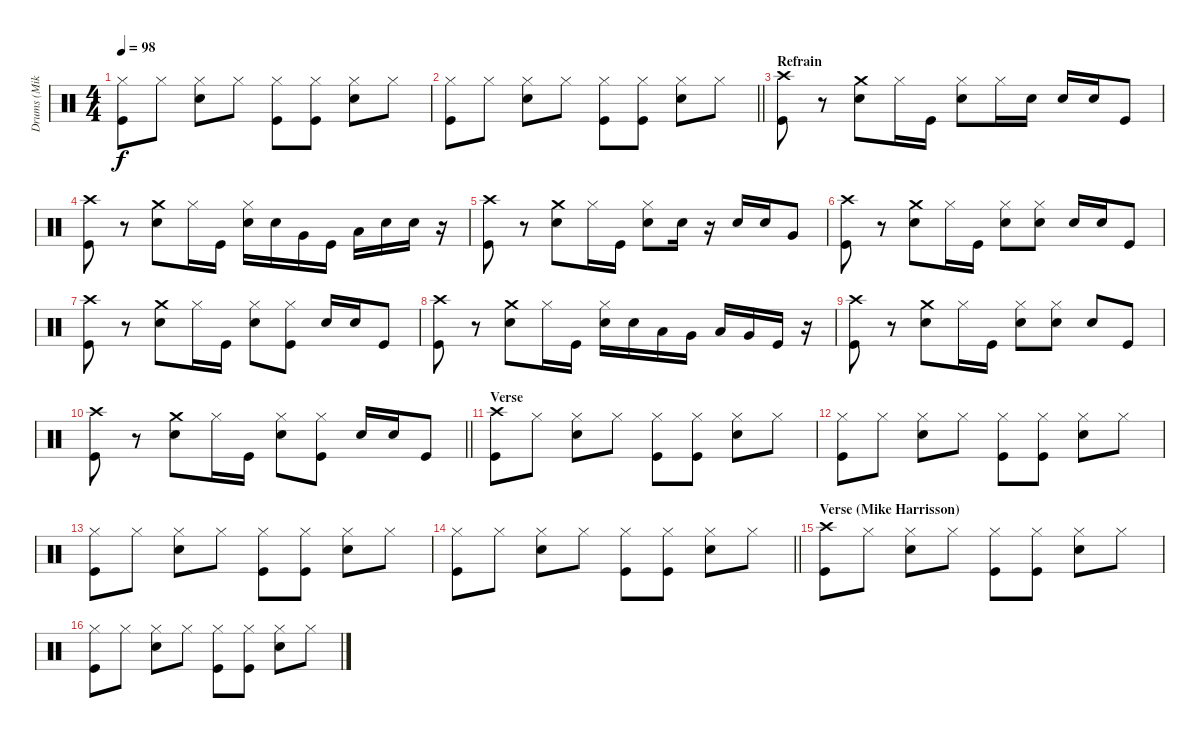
\track ("Drums (Mike Kellie)" "Drums (Mik") {instrument percussion}
\staff {score}
\articulation defaults
\ts (4 4)
\tempo 98
\clef neutral
\ks c
("Hi-Hat (closed)" "Kick (hit)").8{dy f} "Hi-Hat (closed)".8 ("Hi-Hat (closed)" "Electric Snare (hit)").8 "Hi-Hat (closed)".8 ("Hi-Hat (closed)" "Kick (hit)").8 ("Hi-Hat (closed)" "Kick (hit)").8 ("Hi-Hat (closed)" "Electric Snare (hit)").8 "Hi-Hat (closed)".8 |
\barLineRight lightlight
("Hi-Hat (closed)" "Kick (hit)").8 "Hi-Hat (closed)".8 ("Hi-Hat (closed)" "Electric Snare (hit)").8 "Hi-Hat (closed)".8 ("Hi-Hat (closed)" "Kick (hit)").8 ("Hi-Hat (closed)" "Kick (hit)").8 ("Hi-Hat (closed)" "Electric Snare (hit)").8 "Hi-Hat (closed)".8 |
\section ("" "Refrain")
("Crash high (hit)" "Kick (hit)").8 r.8 ("Crash medium (hit)" "Electric Snare (hit)").8 "Hi-Hat (closed)".16 "Kick (hit)".16 ("Hi-Hat (closed)" "Electric Snare (hit)").8 "Hi-Hat (closed)".16 "Electric Snare (hit)".16 "Electric Snare (hit)".16 "Electric Snare (hit)".16 "Kick (hit)".8 |
("Crash high (hit)" "Kick (hit)").8 r.8 ("Crash medium (hit)" "Electric Snare (hit)").8 "Hi-Hat (closed)".16 "Kick (hit)".16 ("Hi-Hat (closed)" "Electric Snare (hit)").16 "Electric Snare (hit)".16 "Very Low Tom (hit)".16 "Kick (hit)".16 "Low Floor Tom (hit)".16 "Electric Snare (hit)".16 "Electric Snare (hit)".16 r.16 |
("Crash high (hit)" "Kick (hit)").8 r.8 ("Crash medium (hit)" "Electric Snare (hit)").8 "Hi-Hat (closed)".16 "Kick (hit)".16 ("Hi-Hat (closed)" "Electric Snare (hit)").8 "Electric Snare (hit)".16 r.16 "Electric Snare (hit)".16 "Electric Snare (hit)".16 "Very Low Tom (hit)".8 |
("Crash high (hit)" "Kick (hit)").8 r.8 ("Crash medium (hit)" "Electric Snare (hit)").8 "Hi-Hat (closed)".16 "Kick (hit)".16 ("Hi-Hat (closed)" "Electric Snare (hit)").8 ("Hi-Hat (closed)" "Electric Snare (hit)").8 "Electric Snare (hit)".16 "Electric Snare (hit)".16 "Kick (hit)".8 |
("Crash high (hit)" "Kick (hit)").8 r.8 ("Crash medium (hit)" "Electric Snare (hit)").8 "Hi-Hat (closed)".16 "Kick (hit)".16 ("Hi-Hat (closed)" "Electric Snare (hit)").8 ("Hi-Hat (closed)" "Kick (hit)").8 "Electric Snare (hit)".16 "Electric Snare (hit)".16 "Kick (hit)".8 |
("Crash high (hit)" "Kick (hit)").8 r.8 ("Crash medium (hit)" "Electric Snare (hit)").8 "Hi-Hat (closed)".16 "Kick (hit)".16 ("Hi-Hat (closed)" "Electric Snare (hit)").16 "Electric Snare (hit)".16 "Low Tom (hit)".16 "Very Low Tom (hit)".16 "Low Tom (hit)".16 "Very Low Tom (hit)".16 "Kick (hit)".16 r.16 |
("Crash high (hit)" "Kick (hit)").8 r.8 ("Crash medium (hit)" "Electric Snare (hit)").8 "Hi-Hat (closed)".16 "Kick (hit)".16 ("Hi-Hat (closed)" "Electric Snare (hit)").8 ("Hi-Hat (closed)" "Electric Snare (hit)").8 "Electric Snare (hit)".8 "Kick (hit)".8 |
\barLineRight lightlight
("Crash high (hit)" "Kick (hit)").8 r.8 ("Crash medium (hit)" "Electric Snare (hit)").8 "Hi-Hat (closed)".16 "Kick (hit)".16 ("Hi-Hat (closed)" "Electric Snare (hit)").8 ("Hi-Hat (closed)" "Kick (hit)").8 "Electric Snare (hit)".16 "Electric Snare (hit)".16 "Kick (hit)".8 |
\section ("" "Verse")
("Crash high (hit)" "Kick (hit)").8 "Hi-Hat (closed)".8 ("Hi-Hat (closed)" "Electric Snare (hit)").8 "Hi-Hat (closed)".8 ("Hi-Hat (closed)" "Kick (hit)").8 ("Hi-Hat (closed)" "Kick (hit)").8 ("Hi-Hat (closed)" "Electric Snare (hit)").8 "Hi-Hat (closed)".8 |
("Hi-Hat (closed)" "Kick (hit)").8 "Hi-Hat (closed)".8 ("Hi-Hat (closed)" "Electric Snare (hit)").8 "Hi-Hat (closed)".8 ("Hi-Hat (closed)" "Kick (hit)").8 ("Hi-Hat (closed)" "Kick (hit)").8 ("Hi-Hat (closed)" "Electric Snare (hit)").8 "Hi-Hat (closed)".8 |
("Hi-Hat (closed)" "Kick (hit)").8 "Hi-Hat (closed)".8 ("Hi-Hat (closed)" "Electric Snare (hit)").8 "Hi-Hat (closed)".8 ("Hi-Hat (closed)" "Kick (hit)").8 ("Hi-Hat (closed)" "Kick (hit)").8 ("Hi-Hat (closed)" "Electric Snare (hit)").8 "Hi-Hat (closed)".8 |
\barLineRight lightlight
("Hi-Hat (closed)" "Kick (hit)").8 "Hi-Hat (closed)".8 ("Hi-Hat (closed)" "Electric Snare (hit)").8 "Hi-Hat (closed)".8 ("Hi-Hat (closed)" "Kick (hit)").8 ("Hi-Hat (closed)" "Kick (hit)").8 ("Hi-Hat (closed)" "Electric Snare (hit)").8 "Hi-Hat (closed)".8 |
\section ("" "Verse (Mike Harrisson)")
("Crash high (hit)" "Kick (hit)").8 "Hi-Hat (closed)".8 ("Hi-Hat (closed)" "Electric Snare (hit)").8 "Hi-Hat (closed)".8 ("Hi-Hat (closed)" "Kick (hit)").8 ("Hi-Hat (closed)" "Kick (hit)").8 ("Hi-Hat (closed)" "Electric Snare (hit)").8 "Hi-Hat (closed)".8 |
("Hi-Hat (closed)" "Kick (hit)").8 "Hi-Hat (closed)".8 ("Hi-Hat (closed)" "Electric Snare (hit)").8 "Hi-Hat (closed)".8 ("Hi-Hat (closed)" "Kick (hit)").8 ("Hi-Hat (closed)" "Kick (hit)").8 ("Hi-Hat (closed)" "Electric Snare (hit)").8 "Hi-Hat (closed)".8
